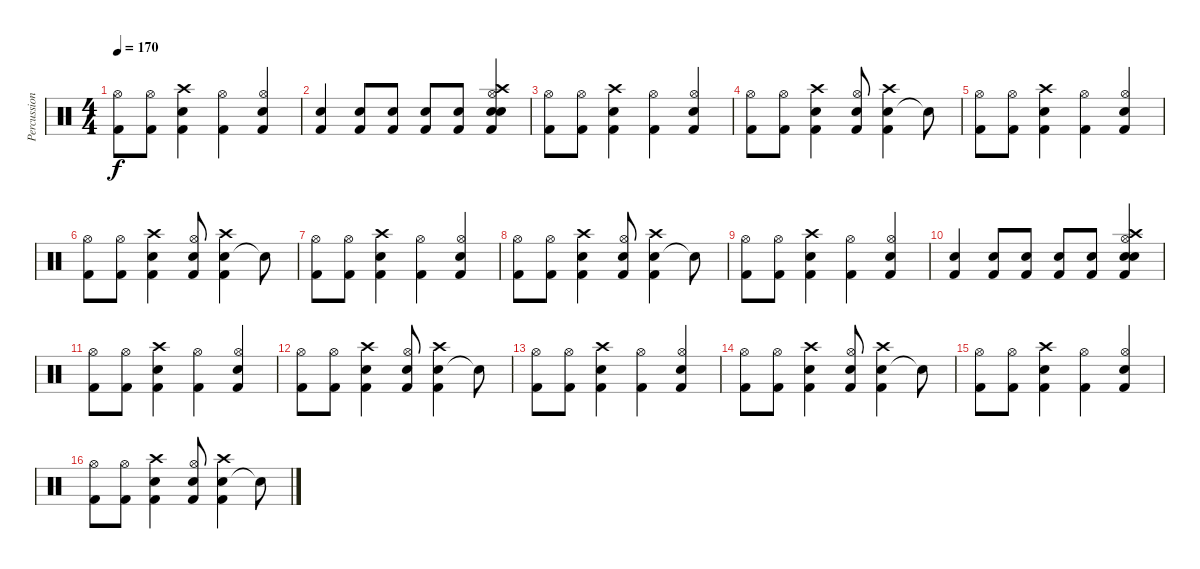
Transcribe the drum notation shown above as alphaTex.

\track ("Percussion" "Percussion") {instrument percussion}
\staff {score}
\articulation defaults
\ts (4 4)
\tempo 170
\clef neutral
\ks c
("Kick (hit) 2" "Hi-Hat (open)").8{dy f} ("Kick (hit) 2" "Hi-Hat (open)").8 ("Electric Snare (hit)" "Kick (hit) 2" "Crash high (hit)").4 ("Kick (hit) 2" "Hi-Hat (open)").4 ("Electric Snare (hit)" "Kick (hit) 2" "Hi-Hat (open)").4 |
("Snare (hit) 2" "Kick (hit) 2").4 ("Snare (hit) 2" "Kick (hit) 2").8 ("Snare (hit) 2" "Kick (hit) 2").8 ("Snare (hit) 2" "Kick (hit) 2").8 ("Snare (hit) 2" "Kick (hit) 2").8 ("Snare (hit) 2" "Electric Snare (hit)" "Kick (hit) 2" "Crash high (hit)" "Hi-Hat (open)").4 |
("Kick (hit) 2" "Hi-Hat (open)").8 ("Kick (hit) 2" "Hi-Hat (open)").8 ("Electric Snare (hit)" "Kick (hit) 2" "Crash high (hit)").4 ("Kick (hit) 2" "Hi-Hat (open)").4 ("Electric Snare (hit)" "Kick (hit) 2" "Hi-Hat (open)").4 |
("Kick (hit) 2" "Hi-Hat (open)").8 ("Kick (hit) 2" "Hi-Hat (open)").8 ("Electric Snare (hit)" "Kick (hit) 2" "Crash high (hit)").4 ("Electric Snare (hit)" "Kick (hit) 2" "Hi-Hat (open)").8 ("Electric Snare (hit)" "Kick (hit) 2" "Crash high (hit)").4 "Snare (hit)"{t}.8 |
("Kick (hit) 2" "Hi-Hat (open)").8 ("Kick (hit) 2" "Hi-Hat (open)").8 ("Electric Snare (hit)" "Kick (hit) 2" "Crash high (hit)").4 ("Kick (hit) 2" "Hi-Hat (open)").4 ("Electric Snare (hit)" "Kick (hit) 2" "Hi-Hat (open)").4 |
("Kick (hit) 2" "Hi-Hat (open)").8 ("Kick (hit) 2" "Hi-Hat (open)").8 ("Electric Snare (hit)" "Kick (hit) 2" "Crash high (hit)").4 ("Electric Snare (hit)" "Kick (hit) 2" "Hi-Hat (open)").8 ("Electric Snare (hit)" "Kick (hit) 2" "Crash high (hit)").4 "Snare (hit)"{t}.8 |
("Kick (hit) 2" "Hi-Hat (open)").8 ("Kick (hit) 2" "Hi-Hat (open)").8 ("Electric Snare (hit)" "Kick (hit) 2" "Crash high (hit)").4 ("Kick (hit) 2" "Hi-Hat (open)").4 ("Electric Snare (hit)" "Kick (hit) 2" "Hi-Hat (open)").4 |
("Kick (hit) 2" "Hi-Hat (open)").8 ("Kick (hit) 2" "Hi-Hat (open)").8 ("Electric Snare (hit)" "Kick (hit) 2" "Crash high (hit)").4 ("Electric Snare (hit)" "Kick (hit) 2" "Hi-Hat (open)").8 ("Electric Snare (hit)" "Kick (hit) 2" "Crash high (hit)").4 "Snare (hit)"{t}.8 |
("Kick (hit) 2" "Hi-Hat (open)").8 ("Kick (hit) 2" "Hi-Hat (open)").8 ("Electric Snare (hit)" "Kick (hit) 2" "Crash high (hit)").4 ("Kick (hit) 2" "Hi-Hat (open)").4 ("Electric Snare (hit)" "Kick (hit) 2" "Hi-Hat (open)").4 |
("Snare (hit) 2" "Kick (hit) 2").4 ("Snare (hit) 2" "Kick (hit) 2").8 ("Snare (hit) 2" "Kick (hit) 2").8 ("Snare (hit) 2" "Kick (hit) 2").8 ("Snare (hit) 2" "Kick (hit) 2").8 ("Snare (hit) 2" "Electric Snare (hit)" "Kick (hit) 2" "Crash high (hit)" "Hi-Hat (open)").4 |
("Kick (hit) 2" "Hi-Hat (open)").8 ("Kick (hit) 2" "Hi-Hat (open)").8 ("Electric Snare (hit)" "Kick (hit) 2" "Crash high (hit)").4 ("Kick (hit) 2" "Hi-Hat (open)").4 ("Electric Snare (hit)" "Kick (hit) 2" "Hi-Hat (open)").4 |
("Kick (hit) 2" "Hi-Hat (open)").8 ("Kick (hit) 2" "Hi-Hat (open)").8 ("Electric Snare (hit)" "Kick (hit) 2" "Crash high (hit)").4 ("Electric Snare (hit)" "Kick (hit) 2" "Hi-Hat (open)").8 ("Electric Snare (hit)" "Kick (hit) 2" "Crash high (hit)").4 "Snare (hit)"{t}.8 |
("Kick (hit) 2" "Hi-Hat (open)").8 ("Kick (hit) 2" "Hi-Hat (open)").8 ("Electric Snare (hit)" "Kick (hit) 2" "Crash high (hit)").4 ("Kick (hit) 2" "Hi-Hat (open)").4 ("Electric Snare (hit)" "Kick (hit) 2" "Hi-Hat (open)").4 |
("Kick (hit) 2" "Hi-Hat (open)").8 ("Kick (hit) 2" "Hi-Hat (open)").8 ("Electric Snare (hit)" "Kick (hit) 2" "Crash high (hit)").4 ("Electric Snare (hit)" "Kick (hit) 2" "Hi-Hat (open)").8 ("Electric Snare (hit)" "Kick (hit) 2" "Crash high (hit)").4 "Snare (hit)"{t}.8 |
("Kick (hit) 2" "Hi-Hat (open)").8 ("Kick (hit) 2" "Hi-Hat (open)").8 ("Electric Snare (hit)" "Kick (hit) 2" "Crash high (hit)").4 ("Kick (hit) 2" "Hi-Hat (open)").4 ("Electric Snare (hit)" "Kick (hit) 2" "Hi-Hat (open)").4 |
("Kick (hit) 2" "Hi-Hat (open)").8 ("Kick (hit) 2" "Hi-Hat (open)").8 ("Electric Snare (hit)" "Kick (hit) 2" "Crash high (hit)").4 ("Electric Snare (hit)" "Kick (hit) 2" "Hi-Hat (open)").8 ("Electric Snare (hit)" "Kick (hit) 2" "Crash high (hit)").4 "Snare (hit)"{t}.8
